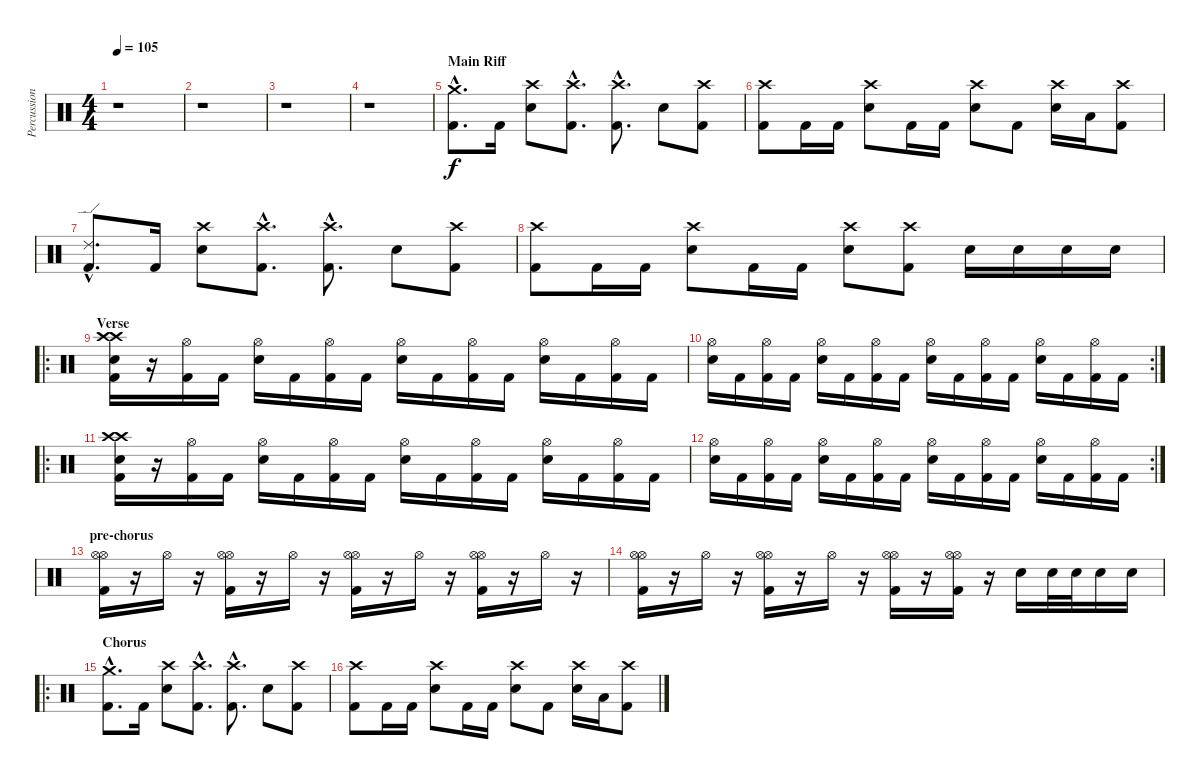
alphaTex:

\track ("Percussions" "Percussion") {instrument percussion}
\staff {score}
\articulation defaults
\ts (4 4)
\tempo 105
\clef neutral
\ks c
r.1{dy f} |
r.1 |
r.1 |
r.1 |
\section ("" "Main Riff")
("Kick (hit) 2"{hac} "Crash medium (hit)"{hac}).8{d} "Kick (hit) 2".16 ("Snare (hit) 2" "Crash high (hit)").8 ("Kick (hit) 2"{hac} "Crash high (hit)"{hac}).8{d} ("Kick (hit) 2"{hac} "Crash high (hit)"{hac}).8{d} "Snare (hit) 2".8 ("Kick (hit) 2" "Crash high (hit)").8 |
("Kick (hit) 2" "Crash high (hit)").8 "Kick (hit) 2".16 "Kick (hit) 2".16 ("Snare (hit) 2" "Crash high (hit)").8 "Kick (hit) 2".16 "Kick (hit) 2".16 ("Snare (hit) 2" "Crash high (hit)").8 "Kick (hit) 2".8 ("Snare (hit) 2" "Crash high (hit)").16 "Low Tom (hit)".16 ("Kick (hit) 2" "Crash high (hit)").8 |
("Kick (hit) 2"{hac} "Ride (edge) 2"{hac}).8{d} "Kick (hit) 2".16 ("Snare (hit) 2" "Crash high (hit)").8 ("Kick (hit) 2"{hac} "Crash high (hit)"{hac}).8{d} ("Kick (hit) 2"{hac} "Crash high (hit)"{hac}).8{d} "Snare (hit) 2".8 ("Kick (hit) 2" "Crash high (hit)").8 |
("Kick (hit) 2" "Crash high (hit)").8 "Kick (hit) 2".16 "Kick (hit) 2".16 ("Snare (hit) 2" "Crash high (hit)").8 "Kick (hit) 2".16 "Kick (hit) 2".16 ("Snare (hit) 2" "Crash high (hit)").8 ("Kick (hit) 2" "Crash high (hit)").8 "Snare (hit) 2".16 "Snare (hit) 2".16 "Snare (hit) 2".16 "Snare (hit) 2".16 |
\ro
\section ("" "Verse")
("Kick (hit) 2" "Snare (hit) 2" "Crash high (hit)" "Crash high (hit)").16 r.16 ("Kick (hit) 2" "Hi-Hat (open)").16 "Kick (hit) 2".16 ("Snare (hit) 2" "Hi-Hat (open)").16 "Kick (hit) 2".16 ("Kick (hit) 2" "Hi-Hat (open)").16 "Kick (hit) 2".16 ("Snare (hit) 2" "Hi-Hat (open)").16 "Kick (hit) 2".16 ("Kick (hit) 2" "Hi-Hat (open)").16 "Kick (hit) 2".16 ("Snare (hit) 2" "Hi-Hat (open)").16 "Kick (hit) 2".16 ("Kick (hit) 2" "Hi-Hat (open)").16 "Kick (hit) 2".16 |
\rc 2
("Snare (hit) 2" "Hi-Hat (open)").16 "Kick (hit) 2".16 ("Kick (hit) 2" "Hi-Hat (open)").16 "Kick (hit) 2".16 ("Snare (hit) 2" "Hi-Hat (open)").16 "Kick (hit) 2".16 ("Kick (hit) 2" "Hi-Hat (open)").16 "Kick (hit) 2".16 ("Snare (hit) 2" "Hi-Hat (open)").16 "Kick (hit) 2".16 ("Kick (hit) 2" "Hi-Hat (open)").16 "Kick (hit) 2".16 ("Snare (hit) 2" "Hi-Hat (open)").16 "Kick (hit) 2".16 ("Kick (hit) 2" "Hi-Hat (open)").16 "Kick (hit) 2".16 |
\ro
("Kick (hit) 2" "Snare (hit) 2" "Crash high (hit)" "Crash high (hit)").16 r.16 ("Kick (hit) 2" "Hi-Hat (open)").16 "Kick (hit) 2".16 ("Snare (hit) 2" "Hi-Hat (open)").16 "Kick (hit) 2".16 ("Kick (hit) 2" "Hi-Hat (open)").16 "Kick (hit) 2".16 ("Snare (hit) 2" "Hi-Hat (open)").16 "Kick (hit) 2".16 ("Kick (hit) 2" "Hi-Hat (open)").16 "Kick (hit) 2".16 ("Snare (hit) 2" "Hi-Hat (open)").16 "Kick (hit) 2".16 ("Kick (hit) 2" "Hi-Hat (open)").16 "Kick (hit) 2".16 |
\rc 2
("Snare (hit) 2" "Hi-Hat (open)").16 "Kick (hit) 2".16 ("Kick (hit) 2" "Hi-Hat (open)").16 "Kick (hit) 2".16 ("Snare (hit) 2" "Hi-Hat (open)").16 "Kick (hit) 2".16 ("Kick (hit) 2" "Hi-Hat (open)").16 "Kick (hit) 2".16 ("Snare (hit) 2" "Hi-Hat (open)").16 "Kick (hit) 2".16 ("Kick (hit) 2" "Hi-Hat (open)").16 "Kick (hit) 2".16 ("Snare (hit) 2" "Hi-Hat (open)").16 "Kick (hit) 2".16 ("Kick (hit) 2" "Hi-Hat (open)").16 "Kick (hit) 2".16 |
\section ("" "pre-chorus")
("Kick (hit) 2" "Hi-Hat (open)" "Hi-Hat (open)").16 r.16 "Hi-Hat (open)".16 r.16 ("Kick (hit) 2" "Hi-Hat (open)" "Hi-Hat (open)").16 r.16 "Hi-Hat (open)".16 r.16 ("Kick (hit) 2" "Hi-Hat (open)" "Hi-Hat (open)").16 r.16 "Hi-Hat (open)".16 r.16 ("Kick (hit) 2" "Hi-Hat (open)" "Hi-Hat (open)").16 r.16 "Hi-Hat (open)".16 r.16 |
("Kick (hit) 2" "Hi-Hat (open)" "Hi-Hat (open)").16 r.16 "Hi-Hat (open)".16 r.16 ("Kick (hit) 2" "Hi-Hat (open)" "Hi-Hat (open)").16 r.16 "Hi-Hat (open)".16 r.16 ("Kick (hit) 2" "Hi-Hat (open)" "Hi-Hat (open)").16 r.16 ("Kick (hit) 2" "Hi-Hat (open)" "Hi-Hat (open)").16 r.16 "Snare (hit) 2".16 "Snare (hit) 2".32 "Snare (hit) 2".32 "Snare (hit) 2".16 "Snare (hit) 2".16 |
\ro
\section ("" "Chorus")
("Kick (hit) 2"{hac} "Crash medium (hit)"{hac}).8{d} "Kick (hit) 2".16 ("Snare (hit) 2" "Crash high (hit)").8 ("Kick (hit) 2"{hac} "Crash high (hit)"{hac}).8{d} ("Kick (hit) 2"{hac} "Crash high (hit)"{hac}).8{d} "Snare (hit) 2".8 ("Kick (hit) 2" "Crash high (hit)").8 |
("Kick (hit) 2" "Crash high (hit)").8 "Kick (hit) 2".16 "Kick (hit) 2".16 ("Snare (hit) 2" "Crash high (hit)").8 "Kick (hit) 2".16 "Kick (hit) 2".16 ("Snare (hit) 2" "Crash high (hit)").8 "Kick (hit) 2".8 ("Snare (hit) 2" "Crash high (hit)").16 "Low Tom (hit)".16 ("Kick (hit) 2" "Crash high (hit)").8
